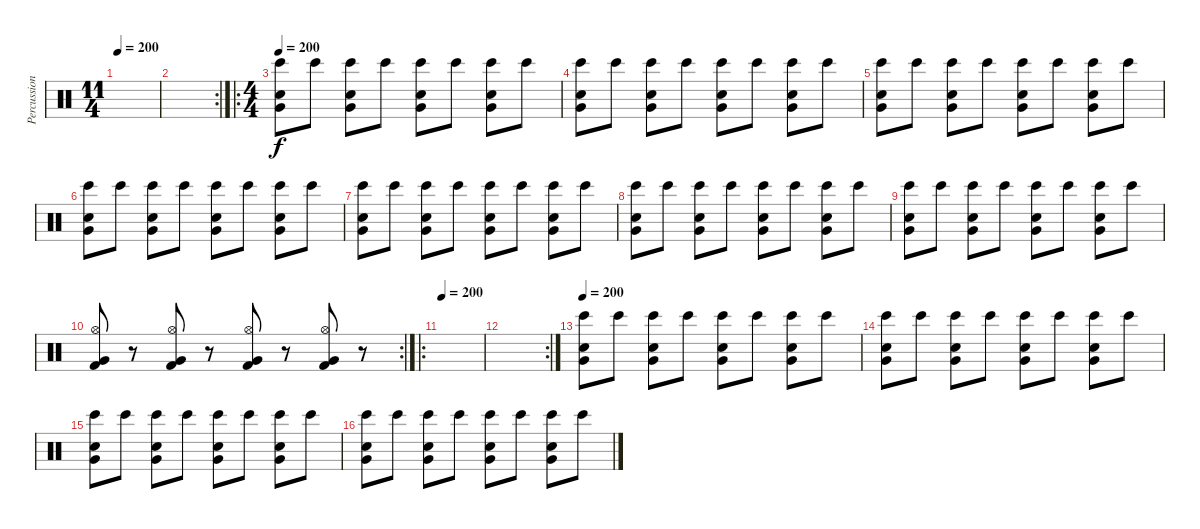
\track ("Percussion" "Percussion") {instrument percussion}
\staff {score}
\articulation defaults
\ts (11 4)
\tempo 200
\tempo 140
\tempo 200
\clef neutral
\ks c
|
\rc 2
|
\ro
\ts (4 4)
\tempo 200
("Very Low Tom (hit)" "Bongo High (hit)" "Snare (hit) 2").8 "Bongo High (hit)".8 ("Very Low Tom (hit)" "Bongo High (hit)" "Snare (hit) 2").8 "Bongo High (hit)".8 ("Very Low Tom (hit)" "Bongo High (hit)" "Snare (hit) 2").8 "Bongo High (hit)".8 ("Very Low Tom (hit)" "Bongo High (hit)" "Snare (hit) 2").8 "Bongo High (hit)".8 |
("Very Low Tom (hit)" "Bongo High (hit)" "Snare (hit) 2").8 "Bongo High (hit)".8 ("Very Low Tom (hit)" "Bongo High (hit)" "Snare (hit) 2").8 "Bongo High (hit)".8 ("Very Low Tom (hit)" "Bongo High (hit)" "Snare (hit) 2").8 "Bongo High (hit)".8 ("Very Low Tom (hit)" "Bongo High (hit)" "Snare (hit) 2").8 "Bongo High (hit)".8 |
("Very Low Tom (hit)" "Bongo High (hit)" "Snare (hit) 2").8 "Bongo High (hit)".8 ("Very Low Tom (hit)" "Bongo High (hit)" "Snare (hit) 2").8 "Bongo High (hit)".8 ("Very Low Tom (hit)" "Bongo High (hit)" "Snare (hit) 2").8 "Bongo High (hit)".8 ("Very Low Tom (hit)" "Bongo High (hit)" "Snare (hit) 2").8 "Bongo High (hit)".8 |
("Very Low Tom (hit)" "Bongo High (hit)" "Snare (hit) 2").8 "Bongo High (hit)".8 ("Very Low Tom (hit)" "Bongo High (hit)" "Snare (hit) 2").8 "Bongo High (hit)".8 ("Very Low Tom (hit)" "Bongo High (hit)" "Snare (hit) 2").8 "Bongo High (hit)".8 ("Very Low Tom (hit)" "Bongo High (hit)" "Snare (hit) 2").8 "Bongo High (hit)".8 |
("Very Low Tom (hit)" "Bongo High (hit)" "Snare (hit) 2").8 "Bongo High (hit)".8 ("Very Low Tom (hit)" "Bongo High (hit)" "Snare (hit) 2").8 "Bongo High (hit)".8 ("Very Low Tom (hit)" "Bongo High (hit)" "Snare (hit) 2").8 "Bongo High (hit)".8 ("Very Low Tom (hit)" "Bongo High (hit)" "Snare (hit) 2").8 "Bongo High (hit)".8 |
("Very Low Tom (hit)" "Bongo High (hit)" "Snare (hit) 2").8 "Bongo High (hit)".8 ("Very Low Tom (hit)" "Bongo High (hit)" "Snare (hit) 2").8 "Bongo High (hit)".8 ("Very Low Tom (hit)" "Bongo High (hit)" "Snare (hit) 2").8 "Bongo High (hit)".8 ("Very Low Tom (hit)" "Bongo High (hit)" "Snare (hit) 2").8 "Bongo High (hit)".8 |
("Very Low Tom (hit)" "Bongo High (hit)" "Snare (hit) 2").8 "Bongo High (hit)".8 ("Very Low Tom (hit)" "Bongo High (hit)" "Snare (hit) 2").8 "Bongo High (hit)".8 ("Very Low Tom (hit)" "Bongo High (hit)" "Snare (hit) 2").8 "Bongo High (hit)".8 ("Very Low Tom (hit)" "Bongo High (hit)" "Snare (hit) 2").8 "Bongo High (hit)".8 |
\rc 2
("Very Low Tom (hit)" "Hi-Hat (open)" "Kick (hit) 2").8 r.8 ("Very Low Tom (hit)" "Hi-Hat (open)" "Kick (hit) 2").8 r.8 ("Very Low Tom (hit)" "Hi-Hat (open)" "Kick (hit) 2").8 r.8 ("Very Low Tom (hit)" "Hi-Hat (open)" "Kick (hit) 2").8 r.8 |
\ro
\tempo 200
|
\rc 2
|
\tempo 200
("Very Low Tom (hit)" "Bongo High (hit)" "Snare (hit) 2").8 "Bongo High (hit)".8 ("Very Low Tom (hit)" "Bongo High (hit)" "Snare (hit) 2").8 "Bongo High (hit)".8 ("Very Low Tom (hit)" "Bongo High (hit)" "Snare (hit) 2").8 "Bongo High (hit)".8 ("Very Low Tom (hit)" "Bongo High (hit)" "Snare (hit) 2").8 "Bongo High (hit)".8 |
("Very Low Tom (hit)" "Bongo High (hit)" "Snare (hit) 2").8 "Bongo High (hit)".8 ("Very Low Tom (hit)" "Bongo High (hit)" "Snare (hit) 2").8 "Bongo High (hit)".8 ("Very Low Tom (hit)" "Bongo High (hit)" "Snare (hit) 2").8 "Bongo High (hit)".8 ("Very Low Tom (hit)" "Bongo High (hit)" "Snare (hit) 2").8 "Bongo High (hit)".8 |
("Very Low Tom (hit)" "Bongo High (hit)" "Snare (hit) 2").8 "Bongo High (hit)".8 ("Very Low Tom (hit)" "Bongo High (hit)" "Snare (hit) 2").8 "Bongo High (hit)".8 ("Very Low Tom (hit)" "Bongo High (hit)" "Snare (hit) 2").8 "Bongo High (hit)".8 ("Very Low Tom (hit)" "Bongo High (hit)" "Snare (hit) 2").8 "Bongo High (hit)".8 |
("Very Low Tom (hit)" "Bongo High (hit)" "Snare (hit) 2").8 "Bongo High (hit)".8 ("Very Low Tom (hit)" "Bongo High (hit)" "Snare (hit) 2").8 "Bongo High (hit)".8 ("Very Low Tom (hit)" "Bongo High (hit)" "Snare (hit) 2").8 "Bongo High (hit)".8 ("Very Low Tom (hit)" "Bongo High (hit)" "Snare (hit) 2").8 "Bongo High (hit)".8
